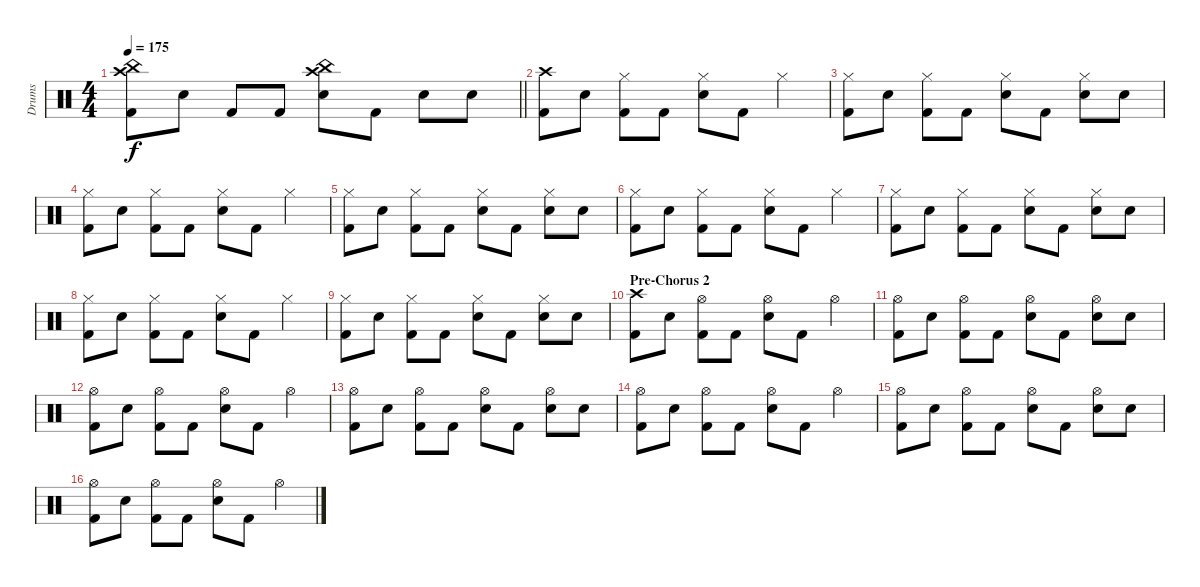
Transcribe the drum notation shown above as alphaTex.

\track ("Drums" "Drums") {instrument percussion}
\staff {score}
\articulation defaults
\ts (4 4)
\tempo 175
\clef neutral
\barLineRight lightlight
\ks c
("Crash high (hit)" "China (hit)" "Kick (hit) 2").8{dy f} "Snare (hit) 2".8 "Kick (hit) 2".8 "Kick (hit) 2".8 ("Crash high (hit)" "China (hit)" "Snare (hit) 2").8 "Kick (hit) 2".8 "Snare (hit) 2".8 "Snare (hit) 2".8 |
("Crash high (hit)" "Kick (hit) 2").8 "Snare (hit) 2".8 ("Hi-Hat (closed)" "Kick (hit) 2").8 "Kick (hit) 2".8 ("Hi-Hat (closed)" "Snare (hit) 2").8 "Kick (hit) 2".8 "Hi-Hat (closed)".4 |
("Hi-Hat (closed)" "Kick (hit) 2").8 "Snare (hit) 2".8 ("Hi-Hat (closed)" "Kick (hit) 2").8 "Kick (hit) 2".8 ("Hi-Hat (closed)" "Snare (hit) 2").8 "Kick (hit) 2".8 ("Hi-Hat (closed)" "Snare (hit) 2").8 "Snare (hit) 2".8 |
("Hi-Hat (closed)" "Kick (hit) 2").8 "Snare (hit) 2".8 ("Hi-Hat (closed)" "Kick (hit) 2").8 "Kick (hit) 2".8 ("Hi-Hat (closed)" "Snare (hit) 2").8 "Kick (hit) 2".8 "Hi-Hat (closed)".4 |
("Hi-Hat (closed)" "Kick (hit) 2").8 "Snare (hit) 2".8 ("Hi-Hat (closed)" "Kick (hit) 2").8 "Kick (hit) 2".8 ("Hi-Hat (closed)" "Snare (hit) 2").8 "Kick (hit) 2".8 ("Hi-Hat (closed)" "Snare (hit) 2").8 "Snare (hit) 2".8 |
("Hi-Hat (closed)" "Kick (hit) 2").8 "Snare (hit) 2".8 ("Hi-Hat (closed)" "Kick (hit) 2").8 "Kick (hit) 2".8 ("Hi-Hat (closed)" "Snare (hit) 2").8 "Kick (hit) 2".8 "Hi-Hat (closed)".4 |
("Hi-Hat (closed)" "Kick (hit) 2").8 "Snare (hit) 2".8 ("Hi-Hat (closed)" "Kick (hit) 2").8 "Kick (hit) 2".8 ("Hi-Hat (closed)" "Snare (hit) 2").8 "Kick (hit) 2".8 ("Hi-Hat (closed)" "Snare (hit) 2").8 "Snare (hit) 2".8 |
("Hi-Hat (closed)" "Kick (hit) 2").8 "Snare (hit) 2".8 ("Hi-Hat (closed)" "Kick (hit) 2").8 "Kick (hit) 2".8 ("Hi-Hat (closed)" "Snare (hit) 2").8 "Kick (hit) 2".8 "Hi-Hat (closed)".4 |
("Hi-Hat (closed)" "Kick (hit) 2").8 "Snare (hit) 2".8 ("Hi-Hat (closed)" "Kick (hit) 2").8 "Kick (hit) 2".8 ("Hi-Hat (closed)" "Snare (hit) 2").8 "Kick (hit) 2".8 ("Hi-Hat (closed)" "Snare (hit) 2").8 "Snare (hit) 2".8 |
\section ("" "Pre-Chorus 2")
("Crash high (hit)" "Kick (hit) 2").8 "Snare (hit) 2".8 ("Hi-Hat (open)" "Kick (hit) 2").8 "Kick (hit) 2".8 ("Hi-Hat (open)" "Snare (hit) 2").8 "Kick (hit) 2".8 "Hi-Hat (open)".4 |
("Hi-Hat (open)" "Kick (hit) 2").8 "Snare (hit) 2".8 ("Hi-Hat (open)" "Kick (hit) 2").8 "Kick (hit) 2".8 ("Hi-Hat (open)" "Snare (hit) 2").8 "Kick (hit) 2".8 ("Hi-Hat (open)" "Snare (hit) 2").8 "Snare (hit) 2".8 |
("Hi-Hat (open)" "Kick (hit) 2").8 "Snare (hit) 2".8 ("Hi-Hat (open)" "Kick (hit) 2").8 "Kick (hit) 2".8 ("Hi-Hat (open)" "Snare (hit) 2").8 "Kick (hit) 2".8 "Hi-Hat (open)".4 |
("Hi-Hat (open)" "Kick (hit) 2").8 "Snare (hit) 2".8 ("Hi-Hat (open)" "Kick (hit) 2").8 "Kick (hit) 2".8 ("Hi-Hat (open)" "Snare (hit) 2").8 "Kick (hit) 2".8 ("Hi-Hat (open)" "Snare (hit) 2").8 "Snare (hit) 2".8 |
("Hi-Hat (open)" "Kick (hit) 2").8 "Snare (hit) 2".8 ("Hi-Hat (open)" "Kick (hit) 2").8 "Kick (hit) 2".8 ("Hi-Hat (open)" "Snare (hit) 2").8 "Kick (hit) 2".8 "Hi-Hat (open)".4 |
("Hi-Hat (open)" "Kick (hit) 2").8 "Snare (hit) 2".8 ("Hi-Hat (open)" "Kick (hit) 2").8 "Kick (hit) 2".8 ("Hi-Hat (open)" "Snare (hit) 2").8 "Kick (hit) 2".8 ("Hi-Hat (open)" "Snare (hit) 2").8 "Snare (hit) 2".8 |
("Hi-Hat (open)" "Kick (hit) 2").8 "Snare (hit) 2".8 ("Hi-Hat (open)" "Kick (hit) 2").8 "Kick (hit) 2".8 ("Hi-Hat (open)" "Snare (hit) 2").8 "Kick (hit) 2".8 "Hi-Hat (open)".4
